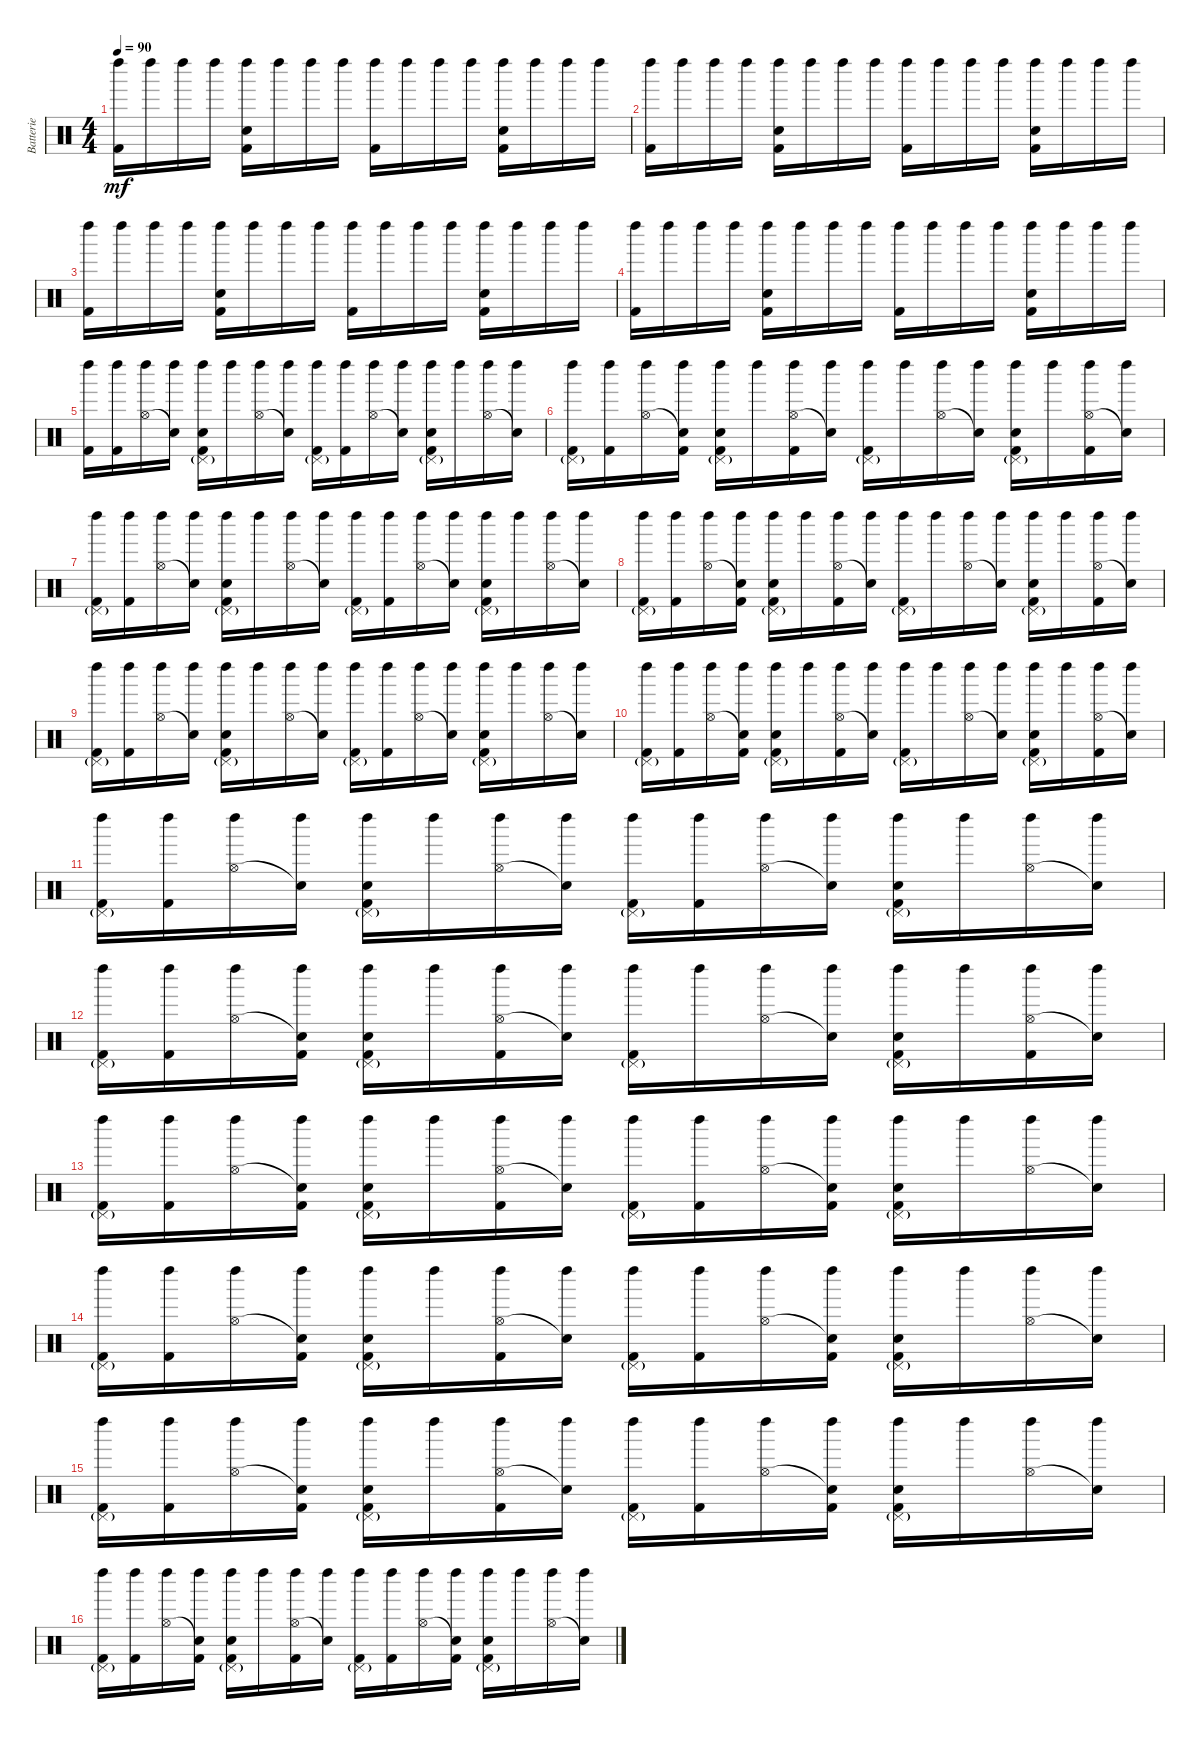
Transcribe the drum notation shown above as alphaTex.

\track ("Batterie" "Batterie") {instrument percussion}
\staff {score}
\articulation defaults
\ts (4 4)
\tempo 90
\clef neutral
\ks c
("Left Maraca (hit)" "Kick (hit) 2").16{dy mf} "Left Maraca (hit)".16 "Left Maraca (hit)".16 "Left Maraca (hit)".16 ("Left Maraca (hit)" "Snare (hit) 2" "Kick (hit) 2").16 "Left Maraca (hit)".16 "Left Maraca (hit)".16 "Left Maraca (hit)".16 ("Left Maraca (hit)" "Kick (hit) 2").16 "Left Maraca (hit)".16 "Left Maraca (hit)".16 "Left Maraca (hit)".16 ("Left Maraca (hit)" "Snare (hit) 2" "Kick (hit) 2").16 "Left Maraca (hit)".16 "Left Maraca (hit)".16 "Left Maraca (hit)".16 |
("Left Maraca (hit)" "Kick (hit) 2").16 "Left Maraca (hit)".16 "Left Maraca (hit)".16 "Left Maraca (hit)".16 ("Left Maraca (hit)" "Snare (hit) 2" "Kick (hit) 2").16 "Left Maraca (hit)".16 "Left Maraca (hit)".16 "Left Maraca (hit)".16 ("Left Maraca (hit)" "Kick (hit) 2").16 "Left Maraca (hit)".16 "Left Maraca (hit)".16 "Left Maraca (hit)".16 ("Left Maraca (hit)" "Snare (hit) 2" "Kick (hit) 2").16 "Left Maraca (hit)".16 "Left Maraca (hit)".16 "Left Maraca (hit)".16 |
("Left Maraca (hit)" "Kick (hit) 2").16 "Left Maraca (hit)".16 "Left Maraca (hit)".16 "Left Maraca (hit)".16 ("Left Maraca (hit)" "Snare (hit) 2" "Kick (hit) 2").16 "Left Maraca (hit)".16 "Left Maraca (hit)".16 "Left Maraca (hit)".16 ("Left Maraca (hit)" "Kick (hit) 2").16 "Left Maraca (hit)".16 "Left Maraca (hit)".16 "Left Maraca (hit)".16 ("Left Maraca (hit)" "Snare (hit) 2" "Kick (hit) 2").16 "Left Maraca (hit)".16 "Left Maraca (hit)".16 "Left Maraca (hit)".16 |
("Left Maraca (hit)" "Kick (hit) 2").16 "Left Maraca (hit)".16 "Left Maraca (hit)".16 "Left Maraca (hit)".16 ("Left Maraca (hit)" "Snare (hit) 2" "Kick (hit) 2").16 "Left Maraca (hit)".16 "Left Maraca (hit)".16 "Left Maraca (hit)".16 ("Left Maraca (hit)" "Kick (hit) 2").16 "Left Maraca (hit)".16 "Left Maraca (hit)".16 "Left Maraca (hit)".16 ("Left Maraca (hit)" "Snare (hit) 2" "Kick (hit) 2").16 "Left Maraca (hit)".16 "Left Maraca (hit)".16 "Left Maraca (hit)".16 |
("Left Maraca (hit)" "Kick (hit) 2").16 ("Left Maraca (hit)" "Kick (hit) 2").16 ("Hi-Hat (open)" "Left Maraca (hit)").16 ("Snare (hit)"{t} "Left Maraca (hit)").16 ("Pedal Hi-Hat (hit)"{g} "Left Maraca (hit)" "Snare (hit) 2" "Kick (hit) 2").16 "Left Maraca (hit)".16 ("Hi-Hat (open)" "Left Maraca (hit)").16 ("Snare (hit)"{t} "Left Maraca (hit)").16 ("Pedal Hi-Hat (hit)"{g} "Left Maraca (hit)" "Kick (hit) 2").16 ("Left Maraca (hit)" "Kick (hit) 2").16 ("Hi-Hat (open)" "Left Maraca (hit)").16 ("Snare (hit)"{t} "Left Maraca (hit)").16 ("Pedal Hi-Hat (hit)"{g} "Left Maraca (hit)" "Snare (hit) 2" "Kick (hit) 2").16 "Left Maraca (hit)".16 ("Hi-Hat (open)" "Left Maraca (hit)").16 ("Snare (hit)"{t} "Left Maraca (hit)").16 |
("Pedal Hi-Hat (hit)"{g} "Left Maraca (hit)" "Kick (hit) 2").16 ("Left Maraca (hit)" "Kick (hit) 2").16 ("Hi-Hat (open)" "Left Maraca (hit)").16 ("Snare (hit)"{t} "Left Maraca (hit)" "Kick (hit) 2").16 ("Pedal Hi-Hat (hit)"{g} "Left Maraca (hit)" "Snare (hit) 2" "Kick (hit) 2").16 "Left Maraca (hit)".16 ("Hi-Hat (open)" "Left Maraca (hit)" "Kick (hit) 2").16 ("Snare (hit)"{t} "Left Maraca (hit)").16 ("Pedal Hi-Hat (hit)"{g} "Left Maraca (hit)" "Kick (hit) 2").16 "Left Maraca (hit)".16 ("Hi-Hat (open)" "Left Maraca (hit)").16 ("Snare (hit)"{t} "Left Maraca (hit)").16 ("Pedal Hi-Hat (hit)"{g} "Left Maraca (hit)" "Snare (hit) 2" "Kick (hit) 2").16 "Left Maraca (hit)".16 ("Hi-Hat (open)" "Left Maraca (hit)" "Kick (hit) 2").16 ("Snare (hit)"{t} "Left Maraca (hit)").16 |
("Pedal Hi-Hat (hit)"{g} "Left Maraca (hit)" "Kick (hit) 2").16 ("Left Maraca (hit)" "Kick (hit) 2").16 ("Hi-Hat (open)" "Left Maraca (hit)").16 ("Snare (hit)"{t} "Left Maraca (hit)").16 ("Pedal Hi-Hat (hit)"{g} "Left Maraca (hit)" "Snare (hit) 2" "Kick (hit) 2").16 "Left Maraca (hit)".16 ("Hi-Hat (open)" "Left Maraca (hit)").16 ("Snare (hit)"{t} "Left Maraca (hit)").16 ("Pedal Hi-Hat (hit)"{g} "Left Maraca (hit)" "Kick (hit) 2").16 ("Left Maraca (hit)" "Kick (hit) 2").16 ("Hi-Hat (open)" "Left Maraca (hit)").16 ("Snare (hit)"{t} "Left Maraca (hit)").16 ("Pedal Hi-Hat (hit)"{g} "Left Maraca (hit)" "Snare (hit) 2" "Kick (hit) 2").16 "Left Maraca (hit)".16 ("Hi-Hat (open)" "Left Maraca (hit)").16 ("Snare (hit)"{t} "Left Maraca (hit)").16 |
("Pedal Hi-Hat (hit)"{g} "Left Maraca (hit)" "Kick (hit) 2").16 ("Left Maraca (hit)" "Kick (hit) 2").16 ("Hi-Hat (open)" "Left Maraca (hit)").16 ("Snare (hit)"{t} "Left Maraca (hit)" "Kick (hit) 2").16 ("Pedal Hi-Hat (hit)"{g} "Left Maraca (hit)" "Snare (hit) 2" "Kick (hit) 2").16 "Left Maraca (hit)".16 ("Hi-Hat (open)" "Left Maraca (hit)" "Kick (hit) 2").16 ("Snare (hit)"{t} "Left Maraca (hit)").16 ("Pedal Hi-Hat (hit)"{g} "Left Maraca (hit)" "Kick (hit) 2").16 "Left Maraca (hit)".16 ("Hi-Hat (open)" "Left Maraca (hit)").16 ("Snare (hit)"{t} "Left Maraca (hit)").16 ("Pedal Hi-Hat (hit)"{g} "Left Maraca (hit)" "Snare (hit) 2" "Kick (hit) 2").16 "Left Maraca (hit)".16 ("Hi-Hat (open)" "Left Maraca (hit)" "Kick (hit) 2").16 ("Snare (hit)"{t} "Left Maraca (hit)").16 |
("Pedal Hi-Hat (hit)"{g} "Left Maraca (hit)" "Kick (hit) 2").16 ("Left Maraca (hit)" "Kick (hit) 2").16 ("Hi-Hat (open)" "Left Maraca (hit)").16 ("Snare (hit)"{t} "Left Maraca (hit)").16 ("Pedal Hi-Hat (hit)"{g} "Left Maraca (hit)" "Snare (hit) 2" "Kick (hit) 2").16 "Left Maraca (hit)".16 ("Hi-Hat (open)" "Left Maraca (hit)").16 ("Snare (hit)"{t} "Left Maraca (hit)").16 ("Pedal Hi-Hat (hit)"{g} "Left Maraca (hit)" "Kick (hit) 2").16 ("Left Maraca (hit)" "Kick (hit) 2").16 ("Hi-Hat (open)" "Left Maraca (hit)").16 ("Snare (hit)"{t} "Left Maraca (hit)").16 ("Pedal Hi-Hat (hit)"{g} "Left Maraca (hit)" "Snare (hit) 2" "Kick (hit) 2").16 "Left Maraca (hit)".16 ("Hi-Hat (open)" "Left Maraca (hit)").16 ("Snare (hit)"{t} "Left Maraca (hit)").16 |
("Pedal Hi-Hat (hit)"{g} "Left Maraca (hit)" "Kick (hit) 2").16 ("Left Maraca (hit)" "Kick (hit) 2").16 ("Hi-Hat (open)" "Left Maraca (hit)").16 ("Snare (hit)"{t} "Left Maraca (hit)" "Kick (hit) 2").16 ("Pedal Hi-Hat (hit)"{g} "Left Maraca (hit)" "Snare (hit) 2" "Kick (hit) 2").16 "Left Maraca (hit)".16 ("Hi-Hat (open)" "Left Maraca (hit)" "Kick (hit) 2").16 ("Snare (hit)"{t} "Left Maraca (hit)").16 ("Pedal Hi-Hat (hit)"{g} "Left Maraca (hit)" "Kick (hit) 2").16 "Left Maraca (hit)".16 ("Hi-Hat (open)" "Left Maraca (hit)").16 ("Snare (hit)"{t} "Left Maraca (hit)").16 ("Pedal Hi-Hat (hit)"{g} "Left Maraca (hit)" "Snare (hit) 2" "Kick (hit) 2").16 "Left Maraca (hit)".16 ("Hi-Hat (open)" "Left Maraca (hit)" "Kick (hit) 2").16 ("Snare (hit)"{t} "Left Maraca (hit)").16 |
("Pedal Hi-Hat (hit)"{g} "Left Maraca (hit)" "Kick (hit) 2").16 ("Left Maraca (hit)" "Kick (hit) 2").16 ("Hi-Hat (open)" "Left Maraca (hit)").16 ("Snare (hit)"{t} "Left Maraca (hit)").16 ("Pedal Hi-Hat (hit)"{g} "Left Maraca (hit)" "Snare (hit) 2" "Kick (hit) 2").16 "Left Maraca (hit)".16 ("Hi-Hat (open)" "Left Maraca (hit)").16 ("Snare (hit)"{t} "Left Maraca (hit)").16 ("Pedal Hi-Hat (hit)"{g} "Left Maraca (hit)" "Kick (hit) 2").16 ("Left Maraca (hit)" "Kick (hit) 2").16 ("Hi-Hat (open)" "Left Maraca (hit)").16 ("Snare (hit)"{t} "Left Maraca (hit)").16 ("Pedal Hi-Hat (hit)"{g} "Left Maraca (hit)" "Snare (hit) 2" "Kick (hit) 2").16 "Left Maraca (hit)".16 ("Hi-Hat (open)" "Left Maraca (hit)").16 ("Snare (hit)"{t} "Left Maraca (hit)").16 |
("Pedal Hi-Hat (hit)"{g} "Left Maraca (hit)" "Kick (hit) 2").16 ("Left Maraca (hit)" "Kick (hit) 2").16 ("Hi-Hat (open)" "Left Maraca (hit)").16 ("Snare (hit)"{t} "Left Maraca (hit)" "Kick (hit) 2").16 ("Pedal Hi-Hat (hit)"{g} "Left Maraca (hit)" "Snare (hit) 2" "Kick (hit) 2").16 "Left Maraca (hit)".16 ("Hi-Hat (open)" "Left Maraca (hit)" "Kick (hit) 2").16 ("Snare (hit)"{t} "Left Maraca (hit)").16 ("Pedal Hi-Hat (hit)"{g} "Left Maraca (hit)" "Kick (hit) 2").16 "Left Maraca (hit)".16 ("Hi-Hat (open)" "Left Maraca (hit)").16 ("Snare (hit)"{t} "Left Maraca (hit)").16 ("Pedal Hi-Hat (hit)"{g} "Left Maraca (hit)" "Snare (hit) 2" "Kick (hit) 2").16 "Left Maraca (hit)".16 ("Hi-Hat (open)" "Left Maraca (hit)" "Kick (hit) 2").16 ("Snare (hit)"{t} "Left Maraca (hit)").16 |
("Pedal Hi-Hat (hit)"{g} "Left Maraca (hit)" "Kick (hit) 2").16 ("Left Maraca (hit)" "Kick (hit) 2").16 ("Hi-Hat (open)" "Left Maraca (hit)").16 ("Snare (hit)"{t} "Left Maraca (hit)" "Kick (hit) 2").16 ("Pedal Hi-Hat (hit)"{g} "Left Maraca (hit)" "Snare (hit) 2" "Kick (hit) 2").16 "Left Maraca (hit)".16 ("Hi-Hat (open)" "Left Maraca (hit)" "Kick (hit) 2").16 ("Snare (hit)"{t} "Left Maraca (hit)").16 ("Pedal Hi-Hat (hit)"{g} "Left Maraca (hit)" "Kick (hit) 2").16 ("Left Maraca (hit)" "Kick (hit) 2").16 ("Hi-Hat (open)" "Left Maraca (hit)").16 ("Snare (hit)"{t} "Left Maraca (hit)" "Kick (hit) 2").16 ("Pedal Hi-Hat (hit)"{g} "Left Maraca (hit)" "Snare (hit) 2" "Kick (hit) 2").16 "Left Maraca (hit)".16 ("Hi-Hat (open)" "Left Maraca (hit)").16 ("Snare (hit)"{t} "Left Maraca (hit)").16 |
("Pedal Hi-Hat (hit)"{g} "Left Maraca (hit)" "Kick (hit) 2").16 ("Left Maraca (hit)" "Kick (hit) 2").16 ("Hi-Hat (open)" "Left Maraca (hit)").16 ("Snare (hit)"{t} "Left Maraca (hit)" "Kick (hit) 2").16 ("Pedal Hi-Hat (hit)"{g} "Left Maraca (hit)" "Snare (hit) 2" "Kick (hit) 2").16 "Left Maraca (hit)".16 ("Hi-Hat (open)" "Left Maraca (hit)" "Kick (hit) 2").16 ("Snare (hit)"{t} "Left Maraca (hit)").16 ("Pedal Hi-Hat (hit)"{g} "Left Maraca (hit)" "Kick (hit) 2").16 ("Left Maraca (hit)" "Kick (hit) 2").16 ("Hi-Hat (open)" "Left Maraca (hit)").16 ("Snare (hit)"{t} "Left Maraca (hit)" "Kick (hit) 2").16 ("Pedal Hi-Hat (hit)"{g} "Left Maraca (hit)" "Snare (hit) 2" "Kick (hit) 2").16 "Left Maraca (hit)".16 ("Hi-Hat (open)" "Left Maraca (hit)").16 ("Snare (hit)"{t} "Left Maraca (hit)").16 |
("Pedal Hi-Hat (hit)"{g} "Left Maraca (hit)" "Kick (hit) 2").16 ("Left Maraca (hit)" "Kick (hit) 2").16 ("Hi-Hat (open)" "Left Maraca (hit)").16 ("Snare (hit)"{t} "Left Maraca (hit)" "Kick (hit) 2").16 ("Pedal Hi-Hat (hit)"{g} "Left Maraca (hit)" "Snare (hit) 2" "Kick (hit) 2").16 "Left Maraca (hit)".16 ("Hi-Hat (open)" "Left Maraca (hit)" "Kick (hit) 2").16 ("Snare (hit)"{t} "Left Maraca (hit)").16 ("Pedal Hi-Hat (hit)"{g} "Left Maraca (hit)" "Kick (hit) 2").16 ("Left Maraca (hit)" "Kick (hit) 2").16 ("Hi-Hat (open)" "Left Maraca (hit)").16 ("Snare (hit)"{t} "Left Maraca (hit)" "Kick (hit) 2").16 ("Pedal Hi-Hat (hit)"{g} "Left Maraca (hit)" "Snare (hit) 2" "Kick (hit) 2").16 "Left Maraca (hit)".16 ("Hi-Hat (open)" "Left Maraca (hit)").16 ("Snare (hit)"{t} "Left Maraca (hit)").16 |
("Pedal Hi-Hat (hit)"{g} "Left Maraca (hit)" "Kick (hit) 2").16 ("Left Maraca (hit)" "Kick (hit) 2").16 ("Hi-Hat (open)" "Left Maraca (hit)").16 ("Snare (hit)"{t} "Left Maraca (hit)" "Kick (hit) 2").16 ("Pedal Hi-Hat (hit)"{g} "Left Maraca (hit)" "Snare (hit) 2" "Kick (hit) 2").16 "Left Maraca (hit)".16 ("Hi-Hat (open)" "Left Maraca (hit)" "Kick (hit) 2").16 ("Snare (hit)"{t} "Left Maraca (hit)").16 ("Pedal Hi-Hat (hit)"{g} "Left Maraca (hit)" "Kick (hit) 2").16 ("Left Maraca (hit)" "Kick (hit) 2").16 ("Hi-Hat (open)" "Left Maraca (hit)").16 ("Snare (hit)"{t} "Left Maraca (hit)" "Kick (hit) 2").16 ("Pedal Hi-Hat (hit)"{g} "Left Maraca (hit)" "Snare (hit) 2" "Kick (hit) 2").16 "Left Maraca (hit)".16 ("Hi-Hat (open)" "Left Maraca (hit)").16 ("Snare (hit)"{t} "Left Maraca (hit)").16
